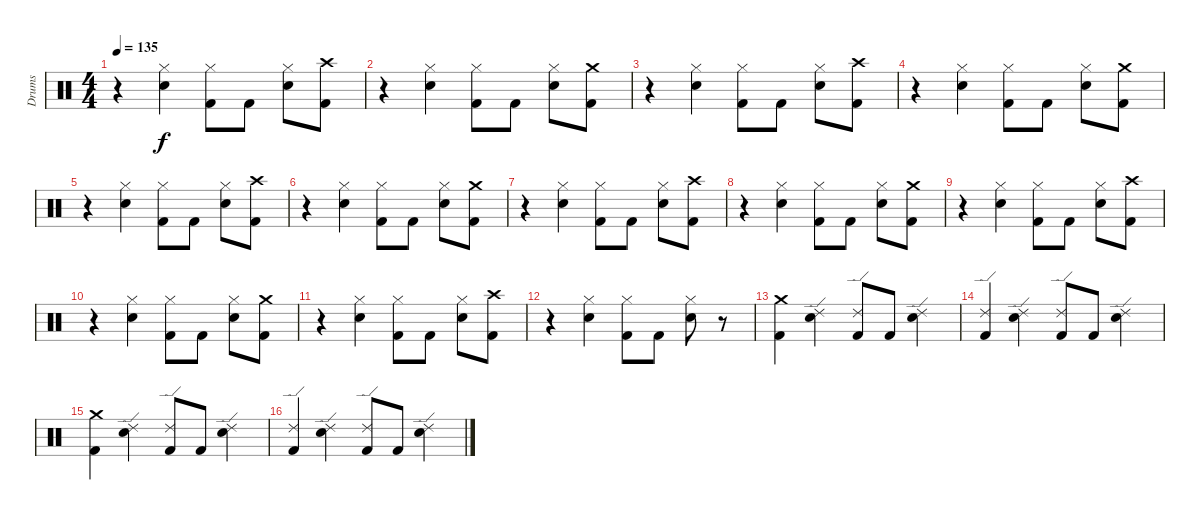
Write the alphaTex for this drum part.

\track ("Drums" "Drums") {instrument percussion}
\staff {score}
\articulation defaults
\ts (4 4)
\tempo 135
\clef neutral
\ks c
r.4{dy f} ("Hi-Hat (closed)" "Electric Snare (hit)").4 ("Hi-Hat (closed)" "Kick (hit) 2").8 "Kick (hit) 2".8 ("Hi-Hat (closed)" "Electric Snare (hit)").8 ("Crash high (hit)" "Kick (hit) 2").8 |
r.4 ("Hi-Hat (closed)" "Electric Snare (hit)").4 ("Hi-Hat (closed)" "Kick (hit) 2").8 "Kick (hit) 2".8 ("Hi-Hat (closed)" "Electric Snare (hit)").8 ("Crash medium (hit)" "Kick (hit) 2").8 |
r.4 ("Hi-Hat (closed)" "Electric Snare (hit)").4 ("Hi-Hat (closed)" "Kick (hit) 2").8 "Kick (hit) 2".8 ("Hi-Hat (closed)" "Electric Snare (hit)").8 ("Crash high (hit)" "Kick (hit) 2").8 |
r.4 ("Hi-Hat (closed)" "Electric Snare (hit)").4 ("Hi-Hat (closed)" "Kick (hit) 2").8 "Kick (hit) 2".8 ("Hi-Hat (closed)" "Electric Snare (hit)").8 ("Crash medium (hit)" "Kick (hit) 2").8 |
r.4 ("Hi-Hat (closed)" "Electric Snare (hit)").4 ("Hi-Hat (closed)" "Kick (hit) 2").8 "Kick (hit) 2".8 ("Hi-Hat (closed)" "Electric Snare (hit)").8 ("Crash high (hit)" "Kick (hit) 2").8 |
r.4 ("Hi-Hat (closed)" "Electric Snare (hit)").4 ("Hi-Hat (closed)" "Kick (hit) 2").8 "Kick (hit) 2".8 ("Hi-Hat (closed)" "Electric Snare (hit)").8 ("Crash medium (hit)" "Kick (hit) 2").8 |
r.4 ("Hi-Hat (closed)" "Electric Snare (hit)").4 ("Hi-Hat (closed)" "Kick (hit) 2").8 "Kick (hit) 2".8 ("Hi-Hat (closed)" "Electric Snare (hit)").8 ("Crash high (hit)" "Kick (hit) 2").8 |
r.4 ("Hi-Hat (closed)" "Electric Snare (hit)").4 ("Hi-Hat (closed)" "Kick (hit) 2").8 "Kick (hit) 2".8 ("Hi-Hat (closed)" "Electric Snare (hit)").8 ("Crash medium (hit)" "Kick (hit) 2").8 |
r.4 ("Hi-Hat (closed)" "Electric Snare (hit)").4 ("Hi-Hat (closed)" "Kick (hit) 2").8 "Kick (hit) 2".8 ("Hi-Hat (closed)" "Electric Snare (hit)").8 ("Crash high (hit)" "Kick (hit) 2").8 |
r.4 ("Hi-Hat (closed)" "Electric Snare (hit)").4 ("Hi-Hat (closed)" "Kick (hit) 2").8 "Kick (hit) 2".8 ("Hi-Hat (closed)" "Electric Snare (hit)").8 ("Crash medium (hit)" "Kick (hit) 2").8 |
r.4 ("Hi-Hat (closed)" "Electric Snare (hit)").4 ("Hi-Hat (closed)" "Kick (hit) 2").8 "Kick (hit) 2".8 ("Hi-Hat (closed)" "Electric Snare (hit)").8 ("Crash high (hit)" "Kick (hit) 2").8 |
r.4 ("Hi-Hat (closed)" "Electric Snare (hit)").4 ("Hi-Hat (closed)" "Kick (hit) 2").8 "Kick (hit) 2".8 ("Hi-Hat (closed)" "Electric Snare (hit)").8 r.8 |
("Crash medium (hit)" "Kick (hit) 2").4 ("Electric Snare (hit)" "Ride (edge) 2").4 ("Ride (edge) 2" "Kick (hit) 2").8 "Kick (hit) 2".8 ("Electric Snare (hit)" "Ride (edge) 2").4 |
("Ride (edge) 2" "Kick (hit) 2").4 ("Ride (edge) 2" "Electric Snare (hit)").4 ("Kick (hit) 2" "Ride (edge) 2").8 "Kick (hit) 2".8 ("Ride (edge) 2" "Electric Snare (hit)").4 |
("Crash medium (hit)" "Kick (hit) 2").4 ("Electric Snare (hit)" "Ride (edge) 2").4 ("Ride (edge) 2" "Kick (hit) 2").8 "Kick (hit) 2".8 ("Electric Snare (hit)" "Ride (edge) 2").4 |
("Ride (edge) 2" "Kick (hit) 2").4 ("Ride (edge) 2" "Electric Snare (hit)").4 ("Kick (hit) 2" "Ride (edge) 2").8 "Kick (hit) 2".8 ("Ride (edge) 2" "Electric Snare (hit)").4
